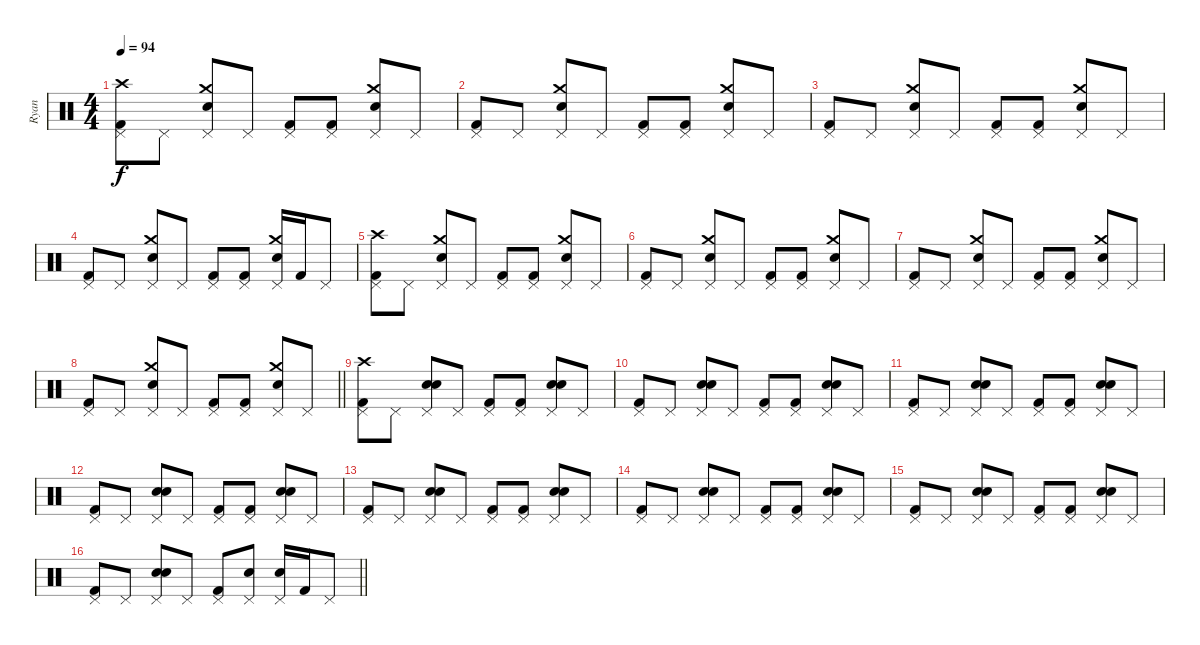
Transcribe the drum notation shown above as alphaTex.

\track ("Ryan" "Ryan") {instrument percussion}
\staff {score}
\articulation defaults
\ts (4 4)
\tempo 94
\clef neutral
\ks c
("Crash high (hit)" "Pedal Hi-Hat (hit)" "Kick (hit) 2").8{dy f} "Pedal Hi-Hat (hit)".8 ("Crash medium (hit)" "Pedal Hi-Hat (hit)" "Electric Snare (hit)").8 "Pedal Hi-Hat (hit)".8 ("Pedal Hi-Hat (hit)" "Kick (hit) 2").8 ("Pedal Hi-Hat (hit)" "Kick (hit) 2").8 ("Crash medium (hit)" "Pedal Hi-Hat (hit)" "Electric Snare (hit)").8 "Pedal Hi-Hat (hit)".8 |
("Pedal Hi-Hat (hit)" "Kick (hit) 2").8 "Pedal Hi-Hat (hit)".8 ("Crash medium (hit)" "Pedal Hi-Hat (hit)" "Electric Snare (hit)").8 "Pedal Hi-Hat (hit)".8 ("Pedal Hi-Hat (hit)" "Kick (hit) 2").8 ("Pedal Hi-Hat (hit)" "Kick (hit) 2").8 ("Crash medium (hit)" "Pedal Hi-Hat (hit)" "Electric Snare (hit)").8 "Pedal Hi-Hat (hit)".8 |
("Pedal Hi-Hat (hit)" "Kick (hit) 2").8 "Pedal Hi-Hat (hit)".8 ("Crash medium (hit)" "Pedal Hi-Hat (hit)" "Electric Snare (hit)").8 "Pedal Hi-Hat (hit)".8 ("Pedal Hi-Hat (hit)" "Kick (hit) 2").8 ("Pedal Hi-Hat (hit)" "Kick (hit) 2").8 ("Crash medium (hit)" "Pedal Hi-Hat (hit)" "Electric Snare (hit)").8 "Pedal Hi-Hat (hit)".8 |
("Pedal Hi-Hat (hit)" "Kick (hit) 2").8 "Pedal Hi-Hat (hit)".8 ("Crash medium (hit)" "Pedal Hi-Hat (hit)" "Electric Snare (hit)").8 "Pedal Hi-Hat (hit)".8 ("Pedal Hi-Hat (hit)" "Kick (hit) 2").8 ("Pedal Hi-Hat (hit)" "Kick (hit) 2").8 ("Crash medium (hit)" "Pedal Hi-Hat (hit)" "Electric Snare (hit)").16 "Kick (hit) 2".16 "Pedal Hi-Hat (hit)".8 |
("Crash high (hit)" "Pedal Hi-Hat (hit)" "Kick (hit) 2").8 "Pedal Hi-Hat (hit)".8 ("Crash medium (hit)" "Pedal Hi-Hat (hit)" "Electric Snare (hit)").8 "Pedal Hi-Hat (hit)".8 ("Pedal Hi-Hat (hit)" "Kick (hit) 2").8 ("Pedal Hi-Hat (hit)" "Kick (hit) 2").8 ("Crash medium (hit)" "Pedal Hi-Hat (hit)" "Electric Snare (hit)").8 "Pedal Hi-Hat (hit)".8 |
("Pedal Hi-Hat (hit)" "Kick (hit) 2").8 "Pedal Hi-Hat (hit)".8 ("Crash medium (hit)" "Pedal Hi-Hat (hit)" "Electric Snare (hit)").8 "Pedal Hi-Hat (hit)".8 ("Pedal Hi-Hat (hit)" "Kick (hit) 2").8 ("Pedal Hi-Hat (hit)" "Kick (hit) 2").8 ("Crash medium (hit)" "Pedal Hi-Hat (hit)" "Electric Snare (hit)").8 "Pedal Hi-Hat (hit)".8 |
("Pedal Hi-Hat (hit)" "Kick (hit) 2").8 "Pedal Hi-Hat (hit)".8 ("Crash medium (hit)" "Pedal Hi-Hat (hit)" "Electric Snare (hit)").8 "Pedal Hi-Hat (hit)".8 ("Pedal Hi-Hat (hit)" "Kick (hit) 2").8 ("Pedal Hi-Hat (hit)" "Kick (hit) 2").8 ("Crash medium (hit)" "Pedal Hi-Hat (hit)" "Electric Snare (hit)").8 "Pedal Hi-Hat (hit)".8 |
\barLineRight lightlight
("Pedal Hi-Hat (hit)" "Kick (hit) 2").8 "Pedal Hi-Hat (hit)".8 ("Crash medium (hit)" "Pedal Hi-Hat (hit)" "Electric Snare (hit)").8 "Pedal Hi-Hat (hit)".8 ("Pedal Hi-Hat (hit)" "Kick (hit) 2").8 ("Pedal Hi-Hat (hit)" "Kick (hit) 2").8 ("Crash medium (hit)" "Pedal Hi-Hat (hit)" "Electric Snare (hit)").8 "Pedal Hi-Hat (hit)".8 |
("Crash high (hit)" "Pedal Hi-Hat (hit)" "Kick (hit) 2").8 "Pedal Hi-Hat (hit)".8 ("Hand Clap (hit)" "Pedal Hi-Hat (hit)" "Electric Snare (hit)").8 "Pedal Hi-Hat (hit)".8 ("Pedal Hi-Hat (hit)" "Kick (hit) 2").8 ("Pedal Hi-Hat (hit)" "Kick (hit) 2").8 ("Hand Clap (hit)" "Pedal Hi-Hat (hit)" "Electric Snare (hit)").8 "Pedal Hi-Hat (hit)".8 |
("Pedal Hi-Hat (hit)" "Kick (hit) 2").8 "Pedal Hi-Hat (hit)".8 ("Hand Clap (hit)" "Pedal Hi-Hat (hit)" "Electric Snare (hit)").8 "Pedal Hi-Hat (hit)".8 ("Pedal Hi-Hat (hit)" "Kick (hit) 2").8 ("Pedal Hi-Hat (hit)" "Kick (hit) 2").8 ("Hand Clap (hit)" "Pedal Hi-Hat (hit)" "Electric Snare (hit)").8 "Pedal Hi-Hat (hit)".8 |
("Pedal Hi-Hat (hit)" "Kick (hit) 2").8 "Pedal Hi-Hat (hit)".8 ("Hand Clap (hit)" "Pedal Hi-Hat (hit)" "Electric Snare (hit)").8 "Pedal Hi-Hat (hit)".8 ("Pedal Hi-Hat (hit)" "Kick (hit) 2").8 ("Pedal Hi-Hat (hit)" "Kick (hit) 2").8 ("Hand Clap (hit)" "Pedal Hi-Hat (hit)" "Electric Snare (hit)").8 "Pedal Hi-Hat (hit)".8 |
("Pedal Hi-Hat (hit)" "Kick (hit) 2").8 "Pedal Hi-Hat (hit)".8 ("Hand Clap (hit)" "Pedal Hi-Hat (hit)" "Electric Snare (hit)").8 "Pedal Hi-Hat (hit)".8 ("Pedal Hi-Hat (hit)" "Kick (hit) 2").8 ("Pedal Hi-Hat (hit)" "Kick (hit) 2").8 ("Hand Clap (hit)" "Pedal Hi-Hat (hit)" "Electric Snare (hit)").8 "Pedal Hi-Hat (hit)".8 |
("Pedal Hi-Hat (hit)" "Kick (hit) 2").8 "Pedal Hi-Hat (hit)".8 ("Hand Clap (hit)" "Pedal Hi-Hat (hit)" "Electric Snare (hit)").8 "Pedal Hi-Hat (hit)".8 ("Pedal Hi-Hat (hit)" "Kick (hit) 2").8 ("Pedal Hi-Hat (hit)" "Kick (hit) 2").8 ("Hand Clap (hit)" "Pedal Hi-Hat (hit)" "Electric Snare (hit)").8 "Pedal Hi-Hat (hit)".8 |
("Pedal Hi-Hat (hit)" "Kick (hit) 2").8 "Pedal Hi-Hat (hit)".8 ("Hand Clap (hit)" "Pedal Hi-Hat (hit)" "Electric Snare (hit)").8 "Pedal Hi-Hat (hit)".8 ("Pedal Hi-Hat (hit)" "Kick (hit) 2").8 ("Pedal Hi-Hat (hit)" "Kick (hit) 2").8 ("Hand Clap (hit)" "Pedal Hi-Hat (hit)" "Electric Snare (hit)").8 "Pedal Hi-Hat (hit)".8 |
("Pedal Hi-Hat (hit)" "Kick (hit) 2").8 "Pedal Hi-Hat (hit)".8 ("Hand Clap (hit)" "Pedal Hi-Hat (hit)" "Electric Snare (hit)").8 "Pedal Hi-Hat (hit)".8 ("Pedal Hi-Hat (hit)" "Kick (hit) 2").8 ("Pedal Hi-Hat (hit)" "Kick (hit) 2").8 ("Hand Clap (hit)" "Pedal Hi-Hat (hit)" "Electric Snare (hit)").8 "Pedal Hi-Hat (hit)".8 |
\barLineRight lightlight
("Pedal Hi-Hat (hit)" "Kick (hit) 2").8 "Pedal Hi-Hat (hit)".8 ("Hand Clap (hit)" "Pedal Hi-Hat (hit)" "Electric Snare (hit)").8 "Pedal Hi-Hat (hit)".8 ("Pedal Hi-Hat (hit)" "Kick (hit) 2").8 ("Pedal Hi-Hat (hit)" "Electric Snare (hit)").8 ("Pedal Hi-Hat (hit)" "Electric Snare (hit)").16 "Kick (hit) 2".16 "Pedal Hi-Hat (hit)".8
